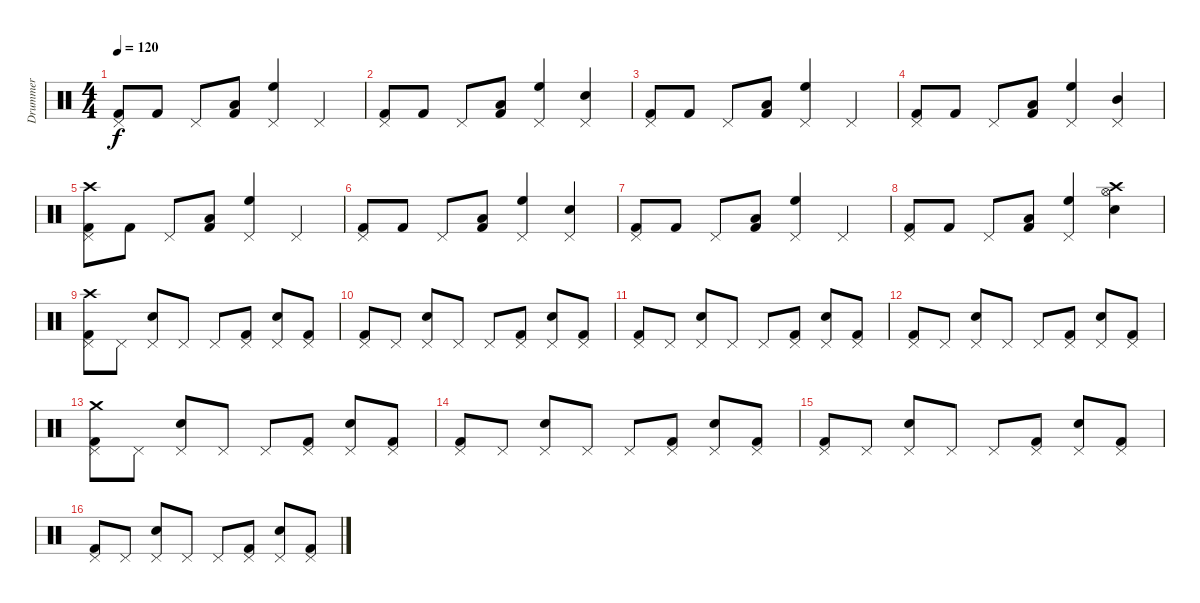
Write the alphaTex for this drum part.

\track ("Drummer" "Drummer") {instrument percussion}
\staff {score}
\articulation defaults
\ts (4 4)
\tempo 120
\clef neutral
\ks c
("Pedal Hi-Hat (hit)" "Kick (hit) 2").8{dy f} "Kick (hit) 2".8 "Pedal Hi-Hat (hit)".8 ("Low Tom (hit)" "Kick (hit) 2").8 ("Pedal Hi-Hat (hit)" "High Floor Tom (hit)").4 "Pedal Hi-Hat (hit)".4 |
("Pedal Hi-Hat (hit)" "Kick (hit) 2").8 "Kick (hit) 2".8 "Pedal Hi-Hat (hit)".8 ("Low Tom (hit)" "Kick (hit) 2").8 ("Pedal Hi-Hat (hit)" "High Floor Tom (hit)").4 ("Pedal Hi-Hat (hit)" "Snare (hit) 2").4 |
("Pedal Hi-Hat (hit)" "Kick (hit) 2").8 "Kick (hit) 2".8 "Pedal Hi-Hat (hit)".8 ("Low Tom (hit)" "Kick (hit) 2").8 ("Pedal Hi-Hat (hit)" "High Floor Tom (hit)").4 "Pedal Hi-Hat (hit)".4 |
("Pedal Hi-Hat (hit)" "Kick (hit) 2").8 "Kick (hit) 2".8 "Pedal Hi-Hat (hit)".8 ("Low Tom (hit)" "Kick (hit) 2").8 ("Pedal Hi-Hat (hit)" "High Floor Tom (hit)").4 ("Pedal Hi-Hat (hit)" "Mid Tom (hit)").4 |
("Crash high (hit)" "Pedal Hi-Hat (hit)" "Kick (hit) 2").8 "Kick (hit) 2".8 "Pedal Hi-Hat (hit)".8 ("Low Tom (hit)" "Kick (hit) 2").8 ("Pedal Hi-Hat (hit)" "High Floor Tom (hit)").4 "Pedal Hi-Hat (hit)".4 |
("Pedal Hi-Hat (hit)" "Kick (hit) 2").8 "Kick (hit) 2".8 "Pedal Hi-Hat (hit)".8 ("Low Tom (hit)" "Kick (hit) 2").8 ("Pedal Hi-Hat (hit)" "High Floor Tom (hit)").4 ("Pedal Hi-Hat (hit)" "Snare (hit) 2").4 |
("Pedal Hi-Hat (hit)" "Kick (hit) 2").8 "Kick (hit) 2".8 "Pedal Hi-Hat (hit)".8 ("Low Tom (hit)" "Kick (hit) 2").8 ("Pedal Hi-Hat (hit)" "High Floor Tom (hit)").4 "Pedal Hi-Hat (hit)".4 |
("Pedal Hi-Hat (hit)" "Kick (hit) 2").8 "Kick (hit) 2".8 "Pedal Hi-Hat (hit)".8 ("Low Tom (hit)" "Kick (hit) 2").8 ("Pedal Hi-Hat (hit)" "High Floor Tom (hit)").4 ("Hi-Hat (open)" "Crash high (hit)" "Snare (hit) 2").4 |
("Crash high (hit)" "Pedal Hi-Hat (hit)" "Kick (hit) 2").8 "Pedal Hi-Hat (hit)".8 ("Pedal Hi-Hat (hit)" "Snare (hit) 2").8 "Pedal Hi-Hat (hit)".8 "Pedal Hi-Hat (hit)".8 ("Pedal Hi-Hat (hit)" "Kick (hit) 2").8 ("Pedal Hi-Hat (hit)" "Snare (hit) 2").8 ("Pedal Hi-Hat (hit)" "Kick (hit) 2").8 |
("Pedal Hi-Hat (hit)" "Kick (hit) 2").8 "Pedal Hi-Hat (hit)".8 ("Pedal Hi-Hat (hit)" "Snare (hit) 2").8 "Pedal Hi-Hat (hit)".8 "Pedal Hi-Hat (hit)".8 ("Pedal Hi-Hat (hit)" "Kick (hit) 2").8 ("Pedal Hi-Hat (hit)" "Snare (hit) 2").8 ("Pedal Hi-Hat (hit)" "Kick (hit) 2").8 |
("Pedal Hi-Hat (hit)" "Kick (hit) 2").8 "Pedal Hi-Hat (hit)".8 ("Pedal Hi-Hat (hit)" "Snare (hit) 2").8 "Pedal Hi-Hat (hit)".8 "Pedal Hi-Hat (hit)".8 ("Pedal Hi-Hat (hit)" "Kick (hit) 2").8 ("Pedal Hi-Hat (hit)" "Snare (hit) 2").8 ("Pedal Hi-Hat (hit)" "Kick (hit) 2").8 |
("Pedal Hi-Hat (hit)" "Kick (hit) 2").8 "Pedal Hi-Hat (hit)".8 ("Pedal Hi-Hat (hit)" "Snare (hit) 2").8 "Pedal Hi-Hat (hit)".8 "Pedal Hi-Hat (hit)".8 ("Pedal Hi-Hat (hit)" "Kick (hit) 2").8 ("Pedal Hi-Hat (hit)" "Snare (hit) 2").8 ("Pedal Hi-Hat (hit)" "Kick (hit) 2").8 |
("Crash medium (hit)" "Pedal Hi-Hat (hit)" "Kick (hit) 2").8 "Pedal Hi-Hat (hit)".8 ("Pedal Hi-Hat (hit)" "Snare (hit) 2").8 "Pedal Hi-Hat (hit)".8 "Pedal Hi-Hat (hit)".8 ("Pedal Hi-Hat (hit)" "Kick (hit) 2").8 ("Pedal Hi-Hat (hit)" "Snare (hit) 2").8 ("Pedal Hi-Hat (hit)" "Kick (hit) 2").8 |
("Pedal Hi-Hat (hit)" "Kick (hit) 2").8 "Pedal Hi-Hat (hit)".8 ("Pedal Hi-Hat (hit)" "Snare (hit) 2").8 "Pedal Hi-Hat (hit)".8 "Pedal Hi-Hat (hit)".8 ("Pedal Hi-Hat (hit)" "Kick (hit) 2").8 ("Pedal Hi-Hat (hit)" "Snare (hit) 2").8 ("Pedal Hi-Hat (hit)" "Kick (hit) 2").8 |
("Pedal Hi-Hat (hit)" "Kick (hit) 2").8 "Pedal Hi-Hat (hit)".8 ("Pedal Hi-Hat (hit)" "Snare (hit) 2").8 "Pedal Hi-Hat (hit)".8 "Pedal Hi-Hat (hit)".8 ("Pedal Hi-Hat (hit)" "Kick (hit) 2").8 ("Pedal Hi-Hat (hit)" "Snare (hit) 2").8 ("Pedal Hi-Hat (hit)" "Kick (hit) 2").8 |
("Pedal Hi-Hat (hit)" "Kick (hit) 2").8 "Pedal Hi-Hat (hit)".8 ("Pedal Hi-Hat (hit)" "Snare (hit) 2").8 "Pedal Hi-Hat (hit)".8 "Pedal Hi-Hat (hit)".8 ("Pedal Hi-Hat (hit)" "Kick (hit) 2").8 ("Pedal Hi-Hat (hit)" "Snare (hit) 2").8 ("Pedal Hi-Hat (hit)" "Kick (hit) 2").8
